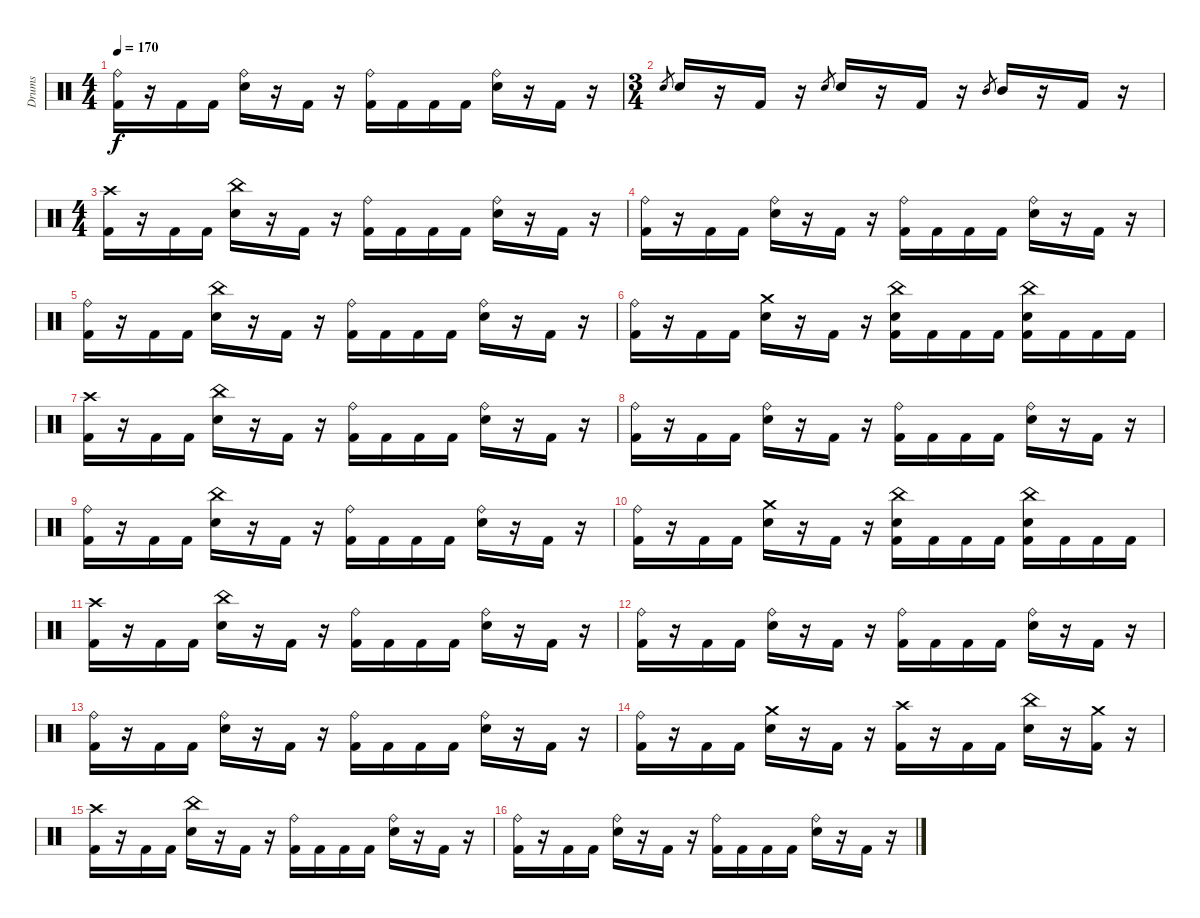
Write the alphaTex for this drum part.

\track ("Drums" "Drums") {instrument percussion}
\staff {score}
\articulation defaults
\ts (4 4)
\tempo 170
\clef neutral
\ks c
("Ride (bell)" "Kick (hit) 2").16{dy f} r.16 "Kick (hit) 2".16 "Kick (hit) 2".16 ("Ride (bell)" "Electric Snare (hit)").16 r.16 "Kick (hit) 2".16 r.16 ("Ride (bell)" "Kick (hit) 2").16 "Kick (hit) 2".16 "Kick (hit) 2".16 "Kick (hit) 2".16 ("Ride (bell)" "Electric Snare (hit)").16 r.16 "Kick (hit) 2".16 r.16 |
\ts (3 4)
"Electric Snare (hit)".8{gr} "Electric Snare (hit)".16 r.16 "Kick (hit) 2".16 r.16 "Electric Snare (hit)".8{gr} "Electric Snare (hit)".16 r.16 "Kick (hit) 2".16 r.16 "Mid Tom (hit)".8{gr} "Mid Tom (hit)".16 r.16 "Kick (hit) 2".16 r.16 |
\ts (4 4)
("Crash high (hit)" "Kick (hit) 2").16 r.16 "Kick (hit) 2".16 "Kick (hit) 2".16 ("China (hit)" "Electric Snare (hit)").16 r.16 "Kick (hit) 2".16 r.16 ("Ride (bell)" "Kick (hit) 2").16 "Kick (hit) 2".16 "Kick (hit) 2".16 "Kick (hit) 2".16 ("Ride (bell)" "Electric Snare (hit)").16 r.16 "Kick (hit) 2".16 r.16 |
("Ride (bell)" "Kick (hit) 2").16 r.16 "Kick (hit) 2".16 "Kick (hit) 2".16 ("Ride (bell)" "Electric Snare (hit)").16 r.16 "Kick (hit) 2".16 r.16 ("Ride (bell)" "Kick (hit) 2").16 "Kick (hit) 2".16 "Kick (hit) 2".16 "Kick (hit) 2".16 ("Ride (bell)" "Electric Snare (hit)").16 r.16 "Kick (hit) 2".16 r.16 |
("Ride (bell)" "Kick (hit) 2").16 r.16 "Kick (hit) 2".16 "Kick (hit) 2".16 ("China (hit)" "Electric Snare (hit)").16 r.16 "Kick (hit) 2".16 r.16 ("Ride (bell)" "Kick (hit) 2").16 "Kick (hit) 2".16 "Kick (hit) 2".16 "Kick (hit) 2".16 ("Ride (bell)" "Electric Snare (hit)").16 r.16 "Kick (hit) 2".16 r.16 |
("Ride (bell)" "Kick (hit) 2").16 r.16 "Kick (hit) 2".16 "Kick (hit) 2".16 ("Crash medium (hit)" "Electric Snare (hit)").16 r.16 "Kick (hit) 2".16 r.16 ("China (hit)" "Electric Snare (hit)" "Kick (hit) 2").16 "Kick (hit) 2".16 "Kick (hit) 2".16 "Kick (hit) 2".16 ("China (hit)" "Electric Snare (hit)" "Kick (hit) 2").16 "Kick (hit) 2".16 "Kick (hit) 2".16 "Kick (hit) 2".16 |
("Crash high (hit)" "Kick (hit) 2").16 r.16 "Kick (hit) 2".16 "Kick (hit) 2".16 ("China (hit)" "Electric Snare (hit)").16 r.16 "Kick (hit) 2".16 r.16 ("Ride (bell)" "Kick (hit) 2").16 "Kick (hit) 2".16 "Kick (hit) 2".16 "Kick (hit) 2".16 ("Ride (bell)" "Electric Snare (hit)").16 r.16 "Kick (hit) 2".16 r.16 |
("Ride (bell)" "Kick (hit) 2").16 r.16 "Kick (hit) 2".16 "Kick (hit) 2".16 ("Ride (bell)" "Electric Snare (hit)").16 r.16 "Kick (hit) 2".16 r.16 ("Ride (bell)" "Kick (hit) 2").16 "Kick (hit) 2".16 "Kick (hit) 2".16 "Kick (hit) 2".16 ("Ride (bell)" "Electric Snare (hit)").16 r.16 "Kick (hit) 2".16 r.16 |
("Ride (bell)" "Kick (hit) 2").16 r.16 "Kick (hit) 2".16 "Kick (hit) 2".16 ("China (hit)" "Electric Snare (hit)").16 r.16 "Kick (hit) 2".16 r.16 ("Ride (bell)" "Kick (hit) 2").16 "Kick (hit) 2".16 "Kick (hit) 2".16 "Kick (hit) 2".16 ("Ride (bell)" "Electric Snare (hit)").16 r.16 "Kick (hit) 2".16 r.16 |
("Ride (bell)" "Kick (hit) 2").16 r.16 "Kick (hit) 2".16 "Kick (hit) 2".16 ("Crash medium (hit)" "Electric Snare (hit)").16 r.16 "Kick (hit) 2".16 r.16 ("China (hit)" "Electric Snare (hit)" "Kick (hit) 2").16 "Kick (hit) 2".16 "Kick (hit) 2".16 "Kick (hit) 2".16 ("China (hit)" "Electric Snare (hit)" "Kick (hit) 2").16 "Kick (hit) 2".16 "Kick (hit) 2".16 "Kick (hit) 2".16 |
("Crash high (hit)" "Kick (hit) 2").16 r.16 "Kick (hit) 2".16 "Kick (hit) 2".16 ("China (hit)" "Electric Snare (hit)").16 r.16 "Kick (hit) 2".16 r.16 ("Ride (bell)" "Kick (hit) 2").16 "Kick (hit) 2".16 "Kick (hit) 2".16 "Kick (hit) 2".16 ("Ride (bell)" "Electric Snare (hit)").16 r.16 "Kick (hit) 2".16 r.16 |
("Ride (bell)" "Kick (hit) 2").16 r.16 "Kick (hit) 2".16 "Kick (hit) 2".16 ("Ride (bell)" "Electric Snare (hit)").16 r.16 "Kick (hit) 2".16 r.16 ("Ride (bell)" "Kick (hit) 2").16 "Kick (hit) 2".16 "Kick (hit) 2".16 "Kick (hit) 2".16 ("Ride (bell)" "Electric Snare (hit)").16 r.16 "Kick (hit) 2".16 r.16 |
("Ride (bell)" "Kick (hit) 2").16 r.16 "Kick (hit) 2".16 "Kick (hit) 2".16 ("Ride (bell)" "Electric Snare (hit)").16 r.16 "Kick (hit) 2".16 r.16 ("Ride (bell)" "Kick (hit) 2").16 "Kick (hit) 2".16 "Kick (hit) 2".16 "Kick (hit) 2".16 ("Ride (bell)" "Electric Snare (hit)").16 r.16 "Kick (hit) 2".16 r.16 |
("Ride (bell)" "Kick (hit) 2").16 r.16 "Kick (hit) 2".16 "Kick (hit) 2".16 ("Crash medium (hit)" "Electric Snare (hit)").16 r.16 "Kick (hit) 2".16 r.16 ("Crash high (hit)" "Kick (hit) 2").16 r.16 "Kick (hit) 2".16 "Kick (hit) 2".16 ("China (hit)" "Electric Snare (hit)").16 r.16 ("Crash medium (hit)" "Kick (hit) 2").16 r.16 |
("Crash high (hit)" "Kick (hit) 2").16 r.16 "Kick (hit) 2".16 "Kick (hit) 2".16 ("China (hit)" "Electric Snare (hit)").16 r.16 "Kick (hit) 2".16 r.16 ("Ride (bell)" "Kick (hit) 2").16 "Kick (hit) 2".16 "Kick (hit) 2".16 "Kick (hit) 2".16 ("Ride (bell)" "Electric Snare (hit)").16 r.16 "Kick (hit) 2".16 r.16 |
("Ride (bell)" "Kick (hit) 2").16 r.16 "Kick (hit) 2".16 "Kick (hit) 2".16 ("Ride (bell)" "Electric Snare (hit)").16 r.16 "Kick (hit) 2".16 r.16 ("Ride (bell)" "Kick (hit) 2").16 "Kick (hit) 2".16 "Kick (hit) 2".16 "Kick (hit) 2".16 ("Ride (bell)" "Electric Snare (hit)").16 r.16 "Kick (hit) 2".16 r.16
